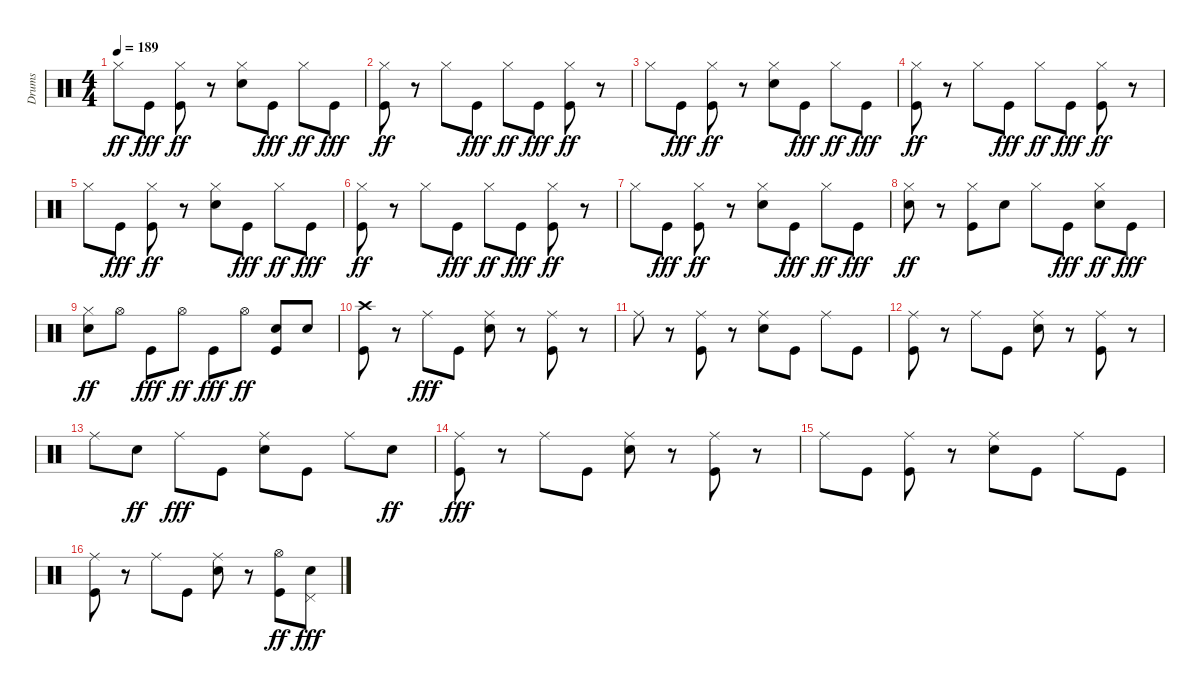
\track ("Drums" "Drums") {instrument percussion}
\staff {score}
\articulation defaults
\ts (4 4)
\tempo 189
\clef neutral
\ks c "Hi-Hat (closed)".8{dy ff} "Kick (hit)".8{dy fff}
("Kick (hit)" "Hi-Hat (closed)").8{dy ff} r.8 ("Snare (hit) 2" "Hi-Hat (closed)").8 "Kick (hit)".8{dy fff} "Hi-Hat (closed)".8{dy ff} "Kick (hit)".8{dy fff} |
("Kick (hit)" "Hi-Hat (closed)").8{dy ff} r.8 "Hi-Hat (closed)".8 "Kick (hit)".8{dy fff} "Hi-Hat (closed)".8{dy ff} "Kick (hit)".8{dy fff} ("Kick (hit)" "Hi-Hat (closed)").8{dy ff} r.8 |
"Hi-Hat (closed)".8 "Kick (hit)".8{dy fff} ("Kick (hit)" "Hi-Hat (closed)").8{dy ff} r.8 ("Snare (hit) 2" "Hi-Hat (closed)").8 "Kick (hit)".8{dy fff} "Hi-Hat (closed)".8{dy ff} "Kick (hit)".8{dy fff} |
("Kick (hit)" "Hi-Hat (closed)").8{dy ff} r.8 "Hi-Hat (closed)".8 "Kick (hit)".8{dy fff} "Hi-Hat (closed)".8{dy ff} "Kick (hit)".8{dy fff} ("Kick (hit)" "Hi-Hat (closed)").8{dy ff} r.8 |
"Hi-Hat (closed)".8 "Kick (hit)".8{dy fff} ("Kick (hit)" "Hi-Hat (closed)").8{dy ff} r.8 ("Snare (hit) 2" "Hi-Hat (closed)").8 "Kick (hit)".8{dy fff} "Hi-Hat (closed)".8{dy ff} "Kick (hit)".8{dy fff} |
("Kick (hit)" "Hi-Hat (closed)").8{dy ff} r.8 "Hi-Hat (closed)".8 "Kick (hit)".8{dy fff} "Hi-Hat (closed)".8{dy ff} "Kick (hit)".8{dy fff} ("Kick (hit)" "Hi-Hat (closed)").8{dy ff} r.8 |
"Hi-Hat (closed)".8 "Kick (hit)".8{dy fff} ("Kick (hit)" "Hi-Hat (closed)").8{dy ff} r.8 ("Snare (hit) 2" "Hi-Hat (closed)").8 "Kick (hit)".8{dy fff} "Hi-Hat (closed)".8{dy ff} "Kick (hit)".8{dy fff} |
("Snare (hit) 2" "Hi-Hat (closed)").8{dy ff} r.8 ("Kick (hit)" "Hi-Hat (closed)").8 "Snare (hit) 2".8 "Hi-Hat (closed)".8 "Kick (hit)".8{dy fff} ("Snare (hit) 2" "Hi-Hat (closed)").8{dy ff} "Kick (hit)".8{dy fff} |
("Snare (hit) 2" "Hi-Hat (closed)").8{dy ff} "Hi-Hat (open)".8 "Kick (hit)".8{dy fff} "Hi-Hat (open)".8{dy ff} "Kick (hit)".8{dy fff} "Hi-Hat (open)".8{dy ff} ("Kick (hit)" "Snare (hit) 2").8 "Snare (hit) 2".8 |
("Kick (hit)" "Crash high (hit)").8 r.8 "Ride (middle)".8{dy fff} "Kick (hit)".8 ("Snare (hit) 2" "Ride (middle)").8 r.8 ("Kick (hit)" "Ride (middle)").8 r.8 |
"Ride (middle)".8 r.8 ("Kick (hit)" "Ride (middle)").8 r.8 ("Snare (hit) 2" "Ride (middle)").8 "Kick (hit)".8 "Ride (middle)".8 "Kick (hit)".8 |
("Kick (hit)" "Ride (middle)").8 r.8 "Ride (middle)".8 "Kick (hit)".8 ("Snare (hit) 2" "Ride (middle)").8 r.8 ("Kick (hit)" "Ride (middle)").8 r.8 |
"Ride (middle)".8 "Snare (hit) 2".8{dy ff} "Ride (middle)".8{dy fff} "Kick (hit)".8 ("Snare (hit) 2" "Ride (middle)").8 "Kick (hit)".8 "Ride (middle)".8 "Snare (hit) 2".8{dy ff} |
("Kick (hit)" "Ride (middle)").8{dy fff} r.8 "Ride (middle)".8 "Kick (hit)".8 ("Snare (hit) 2" "Ride (middle)").8 r.8 ("Kick (hit)" "Ride (middle)").8 r.8 |
"Ride (middle)".8 "Kick (hit)".8 ("Kick (hit)" "Ride (middle)").8 r.8 ("Snare (hit) 2" "Ride (middle)").8 "Kick (hit)".8 "Ride (middle)".8 "Kick (hit)".8 |
("Kick (hit)" "Ride (middle)").8 r.8 "Ride (middle)".8 "Kick (hit)".8 ("Snare (hit) 2" "Ride (middle)").8 r.8 ("Kick (hit)" "Hi-Hat (open)").8{dy ff} ("Snare (hit) 2" "Pedal Hi-Hat (hit)").8{dy fff}
